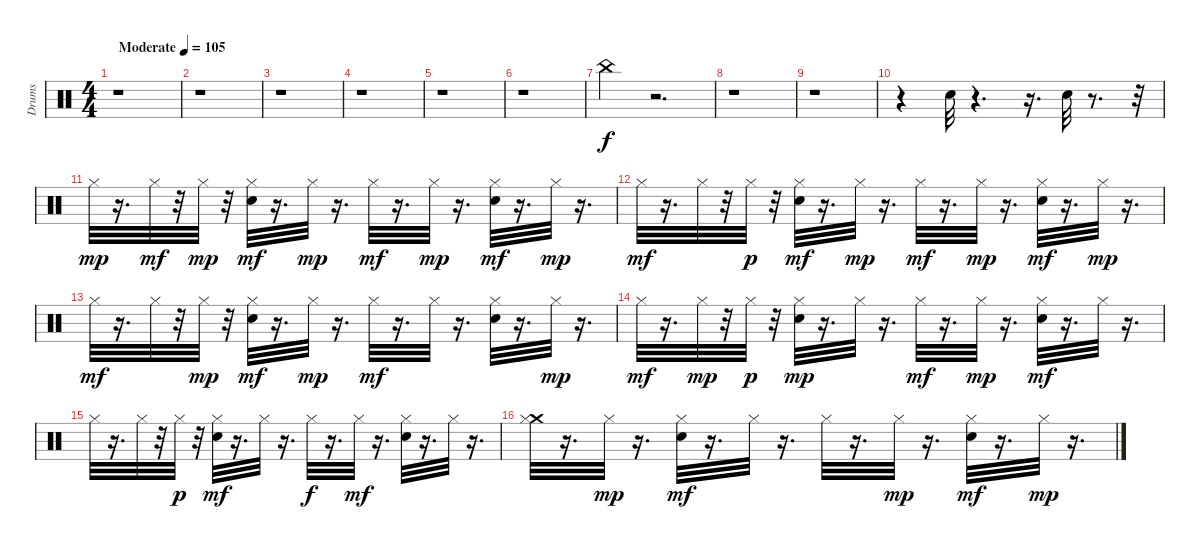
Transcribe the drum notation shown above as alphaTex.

\track ("Drums" "Drums") {instrument percussion}
\staff {score}
\articulation defaults
\ts (4 4)
\tempo (105 "Moderate")
\clef neutral
\ks c
r.1{dy f} |
r.1 |
r.1 |
r.1 |
r.1 |
r.1 |
"China (hit)".4 r.2{d} |
r.1 |
r.1 |
r.4 "Snare (hit) 2".32 r.4{d} r.16{d} "Snare (hit) 2".32 r.8{d} r.32 |
"Hi-Hat (closed)".32{dy mp} r.16{d} "Hi-Hat (closed)".32{dy mf} r.32 "Hi-Hat (closed)".32{dy mp} r.32 ("Snare (hit) 2" "Hi-Hat (closed)").32{dy mf} r.16{d} "Hi-Hat (closed)".32{dy mp} r.16{d} "Hi-Hat (closed)".32{dy mf} r.16{d} "Hi-Hat (closed)".32{dy mp} r.16{d} ("Snare (hit) 2" "Hi-Hat (closed)").32{dy mf} r.16{d} "Hi-Hat (closed)".32{dy mp} r.16{d} |
"Hi-Hat (closed)".32{dy mf} r.16{d} "Hi-Hat (closed)".32 r.32 "Hi-Hat (closed)".32{dy p} r.32 ("Snare (hit) 2" "Hi-Hat (closed)").32{dy mf} r.16{d} "Hi-Hat (closed)".32{dy mp} r.16{d} "Hi-Hat (closed)".32{dy mf} r.16{d} "Hi-Hat (closed)".32{dy mp} r.16{d} ("Snare (hit) 2" "Hi-Hat (closed)").32{dy mf} r.16{d} "Hi-Hat (closed)".32{dy mp} r.16{d} |
"Hi-Hat (closed)".32{dy mf} r.16{d} "Hi-Hat (closed)".32 r.32 "Hi-Hat (closed)".32{dy mp} r.32 ("Snare (hit) 2" "Hi-Hat (closed)").32{dy mf} r.16{d} "Hi-Hat (closed)".32{dy mp} r.16{d} "Hi-Hat (closed)".32{dy mf} r.16{d} "Hi-Hat (closed)".32 r.16{d} ("Snare (hit) 2" "Hi-Hat (closed)").32 r.16{d} "Hi-Hat (closed)".32{dy mp} r.16{d} |
"Hi-Hat (closed)".32{dy mf} r.16{d} "Hi-Hat (closed)".32{dy mp} r.32 "Hi-Hat (closed)".32{dy p} r.32 ("Snare (hit) 2" "Hi-Hat (closed)").32{dy mp} r.16{d} "Hi-Hat (closed)".32 r.16{d} "Hi-Hat (closed)".32{dy mf} r.16{d} "Hi-Hat (closed)".32{dy mp} r.16{d} ("Snare (hit) 2" "Hi-Hat (closed)").32{dy mf} r.16{d} "Hi-Hat (closed)".32 r.16{d} |
"Hi-Hat (closed)".32 r.16{d} "Hi-Hat (closed)".32 r.32 "Hi-Hat (closed)".32{dy p} r.32 ("Snare (hit) 2" "Hi-Hat (closed)").32{dy mf} r.16{d} "Hi-Hat (closed)".32 r.16{d} "Hi-Hat (closed)".32{dy f} r.16{d} "Hi-Hat (closed)".32{dy mf} r.16{d} ("Snare (hit) 2" "Hi-Hat (closed)").32 r.16{d} "Hi-Hat (closed)".32 r.16{d} |
("Crash medium (hit)" "Hi-Hat (closed)").32 r.16{d} "Hi-Hat (closed)".32{dy mp} r.16{d} ("Snare (hit) 2" "Hi-Hat (closed)").32{dy mf} r.16{d} "Hi-Hat (closed)".32 r.16{d} "Hi-Hat (closed)".32 r.16{d} "Hi-Hat (closed)".32{dy mp} r.16{d} ("Snare (hit) 2" "Hi-Hat (closed)").32{dy mf} r.16{d} "Hi-Hat (closed)".32{dy mp} r.16{d}
